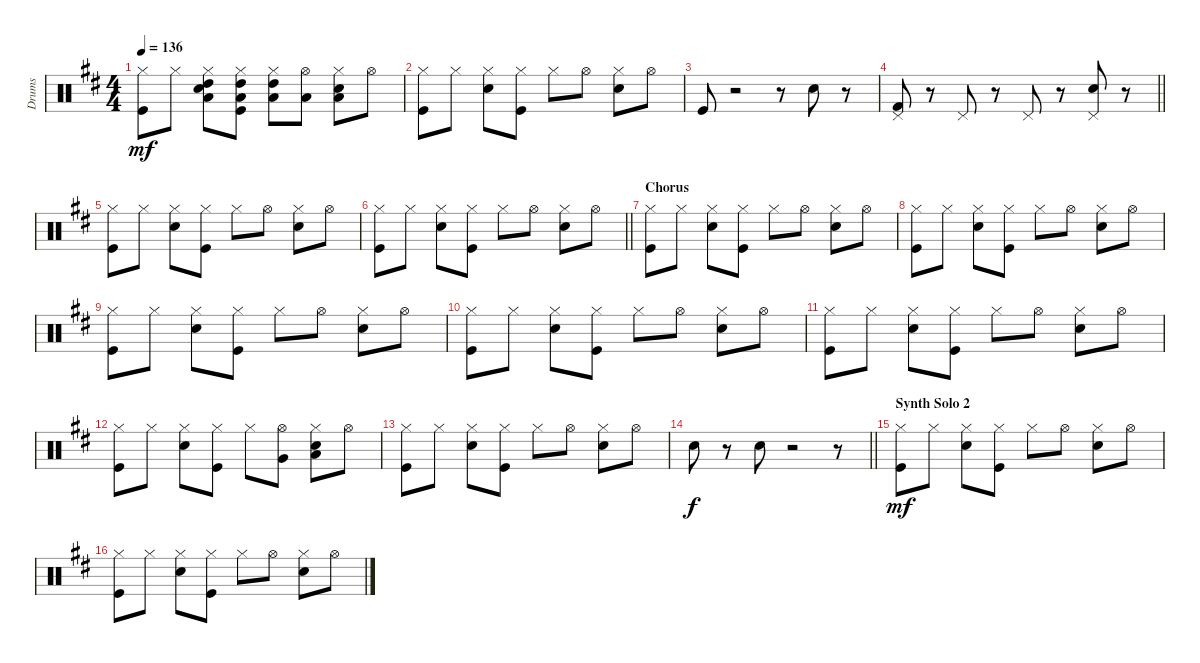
\track ("Drums" "Drums") {instrument percussion}
\staff {score}
\articulation defaults
\ts (4 4)
\tempo 136
\clef neutral
\ks bminor
("Kick (hit)" "Hi-Hat (closed)").8{dy mf} "Hi-Hat (closed)".8 ("High Tom (hit)" "Low Floor Tom (hit)" "Snare (hit) 2" "Hi-Hat (closed)").8 ("High Tom (hit)" "Low Floor Tom (hit)" "Kick (hit)" "Hi-Hat (closed)").8 ("High Tom (hit)" "Low Floor Tom (hit)" "Hi-Hat (closed)").8 ("Low Floor Tom (hit)" "Hi-Hat (open)").8 ("Low Floor Tom (hit)" "Snare (hit) 2" "Hi-Hat (closed)").8 "Hi-Hat (open)".8 |
("Kick (hit)" "Hi-Hat (closed)").8 "Hi-Hat (closed)".8 ("Snare (hit) 2" "Hi-Hat (closed)").8 ("Kick (hit)" "Hi-Hat (closed)").8 "Hi-Hat (closed)".8 "Hi-Hat (open)".8 ("Snare (hit) 2" "Hi-Hat (closed)").8 "Hi-Hat (open)".8 |
"Kick (hit)".8 r.2 r.8 "Snare (hit) 2".8 r.8 |
\barLineRight lightlight
("Pedal Hi-Hat (hit)" "Kick (hit) 2").8 r.8 "Pedal Hi-Hat (hit)".8 r.8 "Pedal Hi-Hat (hit)".8 r.8 ("Pedal Hi-Hat (hit)" "Snare (hit) 2").8 r.8 |
("Kick (hit)" "Hi-Hat (closed)").8 "Hi-Hat (closed)".8 ("Snare (hit) 2" "Hi-Hat (closed)").8 ("Kick (hit)" "Hi-Hat (closed)").8 "Hi-Hat (closed)".8 "Hi-Hat (open)".8 ("Snare (hit) 2" "Hi-Hat (closed)").8 "Hi-Hat (open)".8 |
\barLineRight lightlight
("Kick (hit)" "Hi-Hat (closed)").8 "Hi-Hat (closed)".8 ("Snare (hit) 2" "Hi-Hat (closed)").8 ("Kick (hit)" "Hi-Hat (closed)").8 "Hi-Hat (closed)".8 "Hi-Hat (open)".8 ("Snare (hit) 2" "Hi-Hat (closed)").8 "Hi-Hat (open)".8 |
\section ("" "Chorus")
("Kick (hit)" "Hi-Hat (closed)").8 "Hi-Hat (closed)".8 ("Snare (hit) 2" "Hi-Hat (closed)").8 ("Kick (hit)" "Hi-Hat (closed)").8 "Hi-Hat (closed)".8 "Hi-Hat (open)".8 ("Snare (hit) 2" "Hi-Hat (closed)").8 "Hi-Hat (open)".8 |
("Kick (hit)" "Hi-Hat (closed)").8 "Hi-Hat (closed)".8 ("Snare (hit) 2" "Hi-Hat (closed)").8 ("Kick (hit)" "Hi-Hat (closed)").8 "Hi-Hat (closed)".8 "Hi-Hat (open)".8 ("Snare (hit) 2" "Hi-Hat (closed)").8 "Hi-Hat (open)".8 |
("Kick (hit)" "Hi-Hat (closed)").8 "Hi-Hat (closed)".8 ("Snare (hit) 2" "Hi-Hat (closed)").8 ("Kick (hit)" "Hi-Hat (closed)").8 "Hi-Hat (closed)".8 "Hi-Hat (open)".8 ("Snare (hit) 2" "Hi-Hat (closed)").8 "Hi-Hat (open)".8 |
("Kick (hit)" "Hi-Hat (closed)").8 "Hi-Hat (closed)".8 ("Snare (hit) 2" "Hi-Hat (closed)").8 ("Kick (hit)" "Hi-Hat (closed)").8 "Hi-Hat (closed)".8 "Hi-Hat (open)".8 ("Snare (hit) 2" "Hi-Hat (closed)").8 "Hi-Hat (open)".8 |
("Kick (hit)" "Hi-Hat (closed)").8 "Hi-Hat (closed)".8 ("Snare (hit) 2" "Hi-Hat (closed)").8 ("Kick (hit)" "Hi-Hat (closed)").8 "Hi-Hat (closed)".8 "Hi-Hat (open)".8 ("Snare (hit) 2" "Hi-Hat (closed)").8 "Hi-Hat (open)".8 |
("Kick (hit)" "Hi-Hat (closed)").8 "Hi-Hat (closed)".8 ("Snare (hit) 2" "Hi-Hat (closed)").8 ("Kick (hit)" "Hi-Hat (closed)").8 "Hi-Hat (closed)".8 ("Very Low Tom (hit)" "Hi-Hat (open)").8 ("Low Floor Tom (hit)" "Snare (hit) 2" "Hi-Hat (closed)").8 "Hi-Hat (open)".8 |
("Kick (hit)" "Hi-Hat (closed)").8 "Hi-Hat (closed)".8 ("Snare (hit) 2" "Hi-Hat (closed)").8 ("Kick (hit)" "Hi-Hat (closed)").8 "Hi-Hat (closed)".8 "Hi-Hat (open)".8 ("Snare (hit) 2" "Hi-Hat (closed)").8 "Hi-Hat (open)".8 |
\barLineRight lightlight "Snare (hit) 2".8{dy f}
r.8 "Snare (hit) 2".8 r.2 r.8 |
\section ("" "Synth Solo 2")
("Kick (hit)" "Hi-Hat (closed)").8{dy mf} "Hi-Hat (closed)".8 ("Snare (hit) 2" "Hi-Hat (closed)").8 ("Kick (hit)" "Hi-Hat (closed)").8 "Hi-Hat (closed)".8 "Hi-Hat (open)".8 ("Snare (hit) 2" "Hi-Hat (closed)").8 "Hi-Hat (open)".8 |
("Kick (hit)" "Hi-Hat (closed)").8 "Hi-Hat (closed)".8 ("Snare (hit) 2" "Hi-Hat (closed)").8 ("Kick (hit)" "Hi-Hat (closed)").8 "Hi-Hat (closed)".8 "Hi-Hat (open)".8 ("Snare (hit) 2" "Hi-Hat (closed)").8 "Hi-Hat (open)".8
